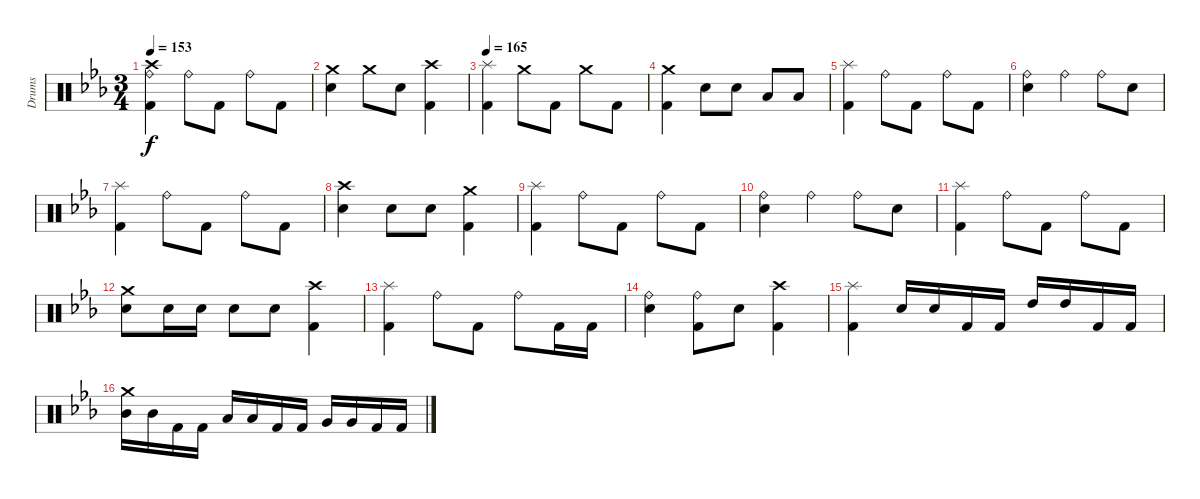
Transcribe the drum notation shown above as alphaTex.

\track ("Drums" "Drums") {instrument percussion}
\staff {score}
\articulation defaults
\ts (3 4)
\tempo 153
\clef neutral
\ks eb
("Kick (hit) 2" "Ride (bell)" "Crash high (hit)").4{dy f} "Ride (bell)".8 "Kick (hit) 2".8 "Ride (bell)".8 "Kick (hit) 2".8 |
("Electric Snare (hit)" "Crash medium (hit)").4 "Crash medium (hit)".8 "Electric Snare (hit)".8 ("Kick (hit) 2" "Crash high (hit)").4 |
\tempo 165
("Kick (hit) 2" "Splash (hit)").4 "Crash medium (hit)".8 "Kick (hit) 2".8 "Crash medium (hit)".8 "Kick (hit) 2".8 |
("Kick (hit) 2" "Crash medium (hit)").4 "Electric Snare (hit)".8 "Electric Snare (hit)".8 "Low Tom (hit)".8 "Low Tom (hit)".8 |
("Kick (hit) 2" "Splash (hit)").4 "Ride (bell)".8 "Kick (hit) 2".8 "Ride (bell)".8 "Kick (hit) 2".8 |
("Electric Snare (hit)" "Ride (bell)").4 "Ride (bell)".4 "Ride (bell)".8 "Electric Snare (hit)".8 |
("Kick (hit) 2" "Splash (hit)").4 "Ride (bell)".8 "Kick (hit) 2".8 "Ride (bell)".8 "Kick (hit) 2".8 |
("Electric Snare (hit)" "Crash high (hit)").4 "Electric Snare (hit)".8 "Electric Snare (hit)".8 ("Kick (hit) 2" "Crash medium (hit)").4 |
("Kick (hit) 2" "Splash (hit)").4 "Ride (bell)".8 "Kick (hit) 2".8 "Ride (bell)".8 "Kick (hit) 2".8 |
("Electric Snare (hit)" "Ride (bell)").4 "Ride (bell)".4 "Ride (bell)".8 "Electric Snare (hit)".8 |
("Kick (hit) 2" "Splash (hit)").4 "Ride (bell)".8 "Kick (hit) 2".8 "Ride (bell)".8 "Kick (hit) 2".8 |
("Electric Snare (hit)" "Crash medium (hit)").8 "Electric Snare (hit)".16 "Electric Snare (hit)".16 "Electric Snare (hit)".8 "Electric Snare (hit)".8 ("Kick (hit) 2" "Crash high (hit)").4 |
("Kick (hit) 2" "Splash (hit)").4 "Ride (bell)".8 "Kick (hit) 2".8 "Ride (bell)".8 "Kick (hit) 2".16 "Kick (hit) 2".16 |
("Electric Snare (hit)" "Ride (bell)").4 ("Kick (hit) 2" "Ride (bell)").8 "Electric Snare (hit)".8 ("Kick (hit) 2" "Crash high (hit)").4 |
("Kick (hit) 2" "Splash (hit)").4 "Electric Snare (hit)".16 "Electric Snare (hit)".16 "Kick (hit) 2".16 "Kick (hit) 2".16 "High Tom (hit)".16 "High Tom (hit)".16 "Kick (hit) 2".16 "Kick (hit) 2".16 |
("Mid Tom (hit)" "Crash medium (hit)").16 "Mid Tom (hit)".16 "Kick (hit) 2".16 "Kick (hit) 2".16 "Low Tom (hit)".16 "Low Tom (hit)".16 "Kick (hit) 2".16 "Kick (hit) 2".16 "Very Low Tom (hit)".16 "Very Low Tom (hit)".16 "Kick (hit) 2".16 "Kick (hit) 2".16
